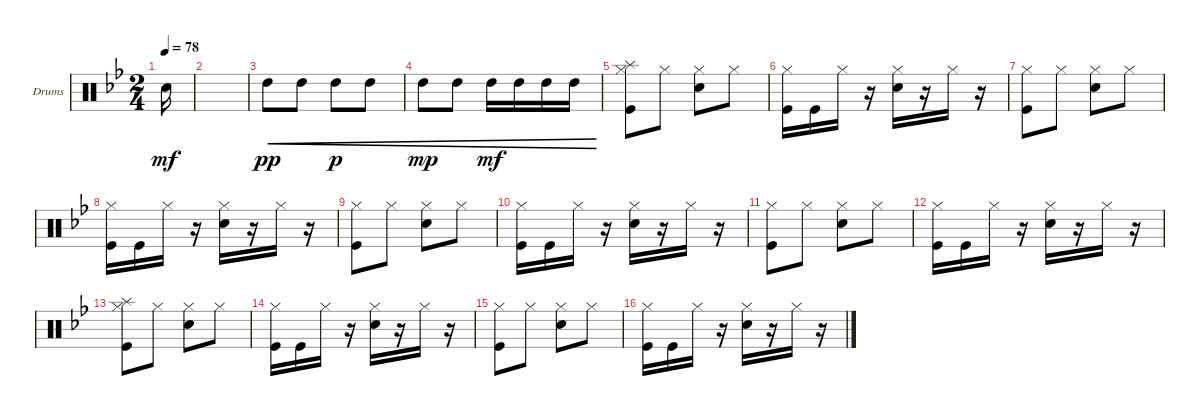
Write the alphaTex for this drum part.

\defaultSystemsLayout 4
\bracketExtendMode groupsimilarinstruments
\firstSystemTrackNameOrientation horizontal
\otherSystemsTrackNameOrientation horizontal
\track ("Катя" "Drums") {instrument percussion}
\staff {score}
\articulation defaults
\ts (2 4)
\tempo 78
\clef neutral
\ks gminor "Snare (hit) 2".16{dy mf}
|
|
"High Tom (hit)".8{cre dy pp} "High Tom (hit)".8{cre} "High Tom (hit)".8{cre dy p} "High Tom (hit)".8{cre} |
"High Tom (hit)".8{cre dy mp} "High Tom (hit)".8{cre} "High Tom (hit)".16{cre dy mf} "High Tom (hit)".16{cre} "High Tom (hit)".16{cre} "High Tom (hit)".16{cre} |
("Kick (hit)" "Hi-Hat (closed)" "Splash (hit)").8 "Hi-Hat (closed)".8 ("Hi-Hat (closed)" "Snare (hit) 2").8 "Hi-Hat (closed)".8 |
("Hi-Hat (closed)" "Kick (hit)").16 "Kick (hit)".16 "Hi-Hat (closed)".16 r.16 ("Hi-Hat (closed)" "Snare (hit) 2").16 r.16 "Hi-Hat (closed)".16 r.16 |
("Kick (hit)" "Hi-Hat (closed)").8 "Hi-Hat (closed)".8 ("Hi-Hat (closed)" "Snare (hit) 2").8 "Hi-Hat (closed)".8 |
("Hi-Hat (closed)" "Kick (hit)").16 "Kick (hit)".16 "Hi-Hat (closed)".16 r.16 ("Hi-Hat (closed)" "Snare (hit) 2").16 r.16 "Hi-Hat (closed)".16 r.16 |
("Kick (hit)" "Hi-Hat (closed)").8 "Hi-Hat (closed)".8 ("Hi-Hat (closed)" "Snare (hit) 2").8 "Hi-Hat (closed)".8 |
("Hi-Hat (closed)" "Kick (hit)").16 "Kick (hit)".16 "Hi-Hat (closed)".16 r.16 ("Hi-Hat (closed)" "Snare (hit) 2").16 r.16 "Hi-Hat (closed)".16 r.16 |
("Kick (hit)" "Hi-Hat (closed)").8 "Hi-Hat (closed)".8 ("Hi-Hat (closed)" "Snare (hit) 2").8 "Hi-Hat (closed)".8 |
("Hi-Hat (closed)" "Kick (hit)").16 "Kick (hit)".16 "Hi-Hat (closed)".16 r.16 ("Hi-Hat (closed)" "Snare (hit) 2").16 r.16 "Hi-Hat (closed)".16 r.16 |
("Kick (hit)" "Hi-Hat (closed)" "Splash (hit)").8 "Hi-Hat (closed)".8 ("Hi-Hat (closed)" "Snare (hit) 2").8 "Hi-Hat (closed)".8 |
("Hi-Hat (closed)" "Kick (hit)").16 "Kick (hit)".16 "Hi-Hat (closed)".16 r.16 ("Hi-Hat (closed)" "Snare (hit) 2").16 r.16 "Hi-Hat (closed)".16 r.16 |
("Kick (hit)" "Hi-Hat (closed)").8 "Hi-Hat (closed)".8 ("Hi-Hat (closed)" "Snare (hit) 2").8 "Hi-Hat (closed)".8 |
("Hi-Hat (closed)" "Kick (hit)").16 "Kick (hit)".16 "Hi-Hat (closed)".16 r.16 ("Hi-Hat (closed)" "Snare (hit) 2").16 r.16 "Hi-Hat (closed)".16 r.16
